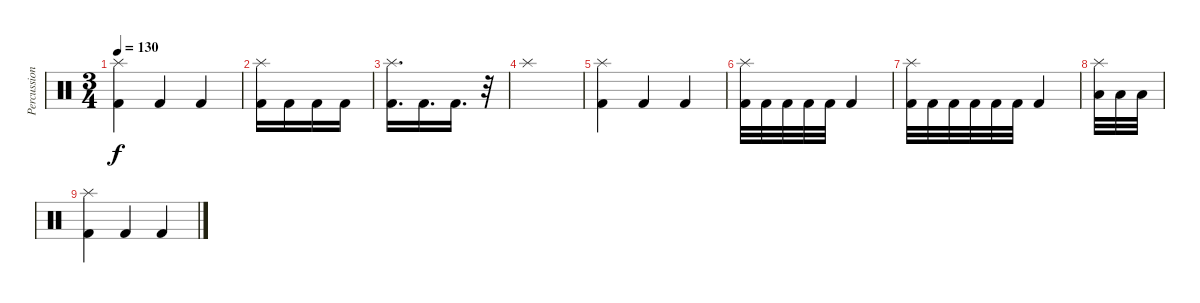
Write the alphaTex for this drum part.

\track ("Percussion" "Percussion") {instrument percussion}
\staff {score}
\articulation defaults
\ts (3 4)
\tempo 130
\clef neutral
\ks c
("Splash (hit)" "Kick (hit) 2").4{dy f} "Kick (hit) 2".4 "Kick (hit) 2".4 |
("Splash (hit)" "Kick (hit) 2").16 "Kick (hit) 2".16 "Kick (hit) 2".16 "Kick (hit) 2".16 |
("Splash (hit)" "Kick (hit) 2").16{d} "Kick (hit) 2".16{d} "Kick (hit) 2".16{d} r.32 |
"Splash (hit)".1 |
("Splash (hit)" "Kick (hit) 2").4 "Kick (hit) 2".4 "Kick (hit) 2".4 |
("Splash (hit)" "Kick (hit) 2").32 "Kick (hit) 2".32 "Kick (hit) 2".32 "Kick (hit) 2".32 "Kick (hit) 2".32 "Kick (hit) 2".4 |
("Splash (hit)" "Kick (hit) 2").32 "Kick (hit) 2".32 "Kick (hit) 2".32 "Kick (hit) 2".32 "Kick (hit) 2".32 "Kick (hit) 2".32 "Kick (hit) 2".4 |
("Splash (hit)" "Low Tom (hit)").32 "Low Tom (hit)".32 "Low Tom (hit)".32 |
("Splash (hit)" "Kick (hit) 2").4 "Kick (hit) 2".4 "Kick (hit) 2".4
